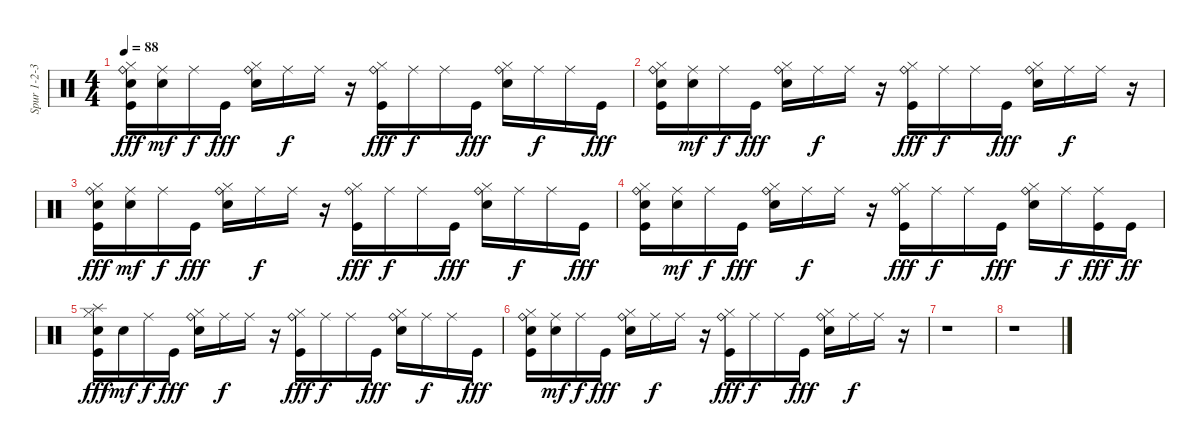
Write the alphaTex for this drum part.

\track ("Spur 1-2-3-4" "Spur 1-2-3") {instrument percussion}
\staff {score}
\articulation defaults
\ts (4 4)
\tempo 88
\clef neutral
\ks c
("Hi-Hat (closed)" "Snare (hit) 2" "Kick (hit)" "Ride (bell)").16{dy fff} ("Snare (hit) 2" "Ride (middle)").16{dy mf} "Ride (middle)".16{dy f} "Kick (hit)".16{dy fff} ("Hi-Hat (closed)" "Snare (hit) 2" "Ride (bell)").16 "Ride (middle)".16{dy f} "Ride (middle)".16 r.16 ("Hi-Hat (closed)" "Kick (hit)" "Ride (bell)").16{dy fff} "Ride (middle)".16{dy f} "Ride (middle)".16 "Kick (hit)".16{dy fff} ("Hi-Hat (closed)" "Snare (hit) 2" "Ride (bell)").16 "Ride (middle)".16{dy f} "Ride (middle)".16 "Kick (hit)".16{dy fff} |
("Hi-Hat (closed)" "Snare (hit) 2" "Kick (hit)" "Ride (bell)").16 ("Snare (hit) 2" "Ride (middle)").16{dy mf} "Ride (middle)".16{dy f} "Kick (hit)".16{dy fff} ("Hi-Hat (closed)" "Snare (hit) 2" "Ride (bell)").16 "Ride (middle)".16{dy f} "Ride (middle)".16 r.16 ("Hi-Hat (closed)" "Kick (hit)" "Ride (bell)").16{dy fff} "Ride (middle)".16{dy f} "Ride (middle)".16 "Kick (hit)".16{dy fff} ("Hi-Hat (closed)" "Snare (hit) 2" "Ride (bell)").16 "Ride (middle)".16{dy f} "Ride (middle)".16 r.16 |
("Hi-Hat (closed)" "Snare (hit) 2" "Kick (hit)" "Ride (bell)").16{dy fff} ("Snare (hit) 2" "Ride (middle)").16{dy mf} "Ride (middle)".16{dy f} "Kick (hit)".16{dy fff} ("Hi-Hat (closed)" "Snare (hit) 2" "Ride (bell)").16 "Ride (middle)".16{dy f} "Ride (middle)".16 r.16 ("Hi-Hat (closed)" "Kick (hit)" "Ride (bell)").16{dy fff} "Ride (middle)".16{dy f} "Ride (middle)".16 "Kick (hit)".16{dy fff} ("Hi-Hat (closed)" "Snare (hit) 2" "Ride (bell)").16 "Ride (middle)".16{dy f} "Ride (middle)".16 "Kick (hit)".16{dy fff} |
("Hi-Hat (closed)" "Snare (hit) 2" "Kick (hit)" "Ride (bell)").16 ("Snare (hit) 2" "Ride (middle)").16{dy mf} "Ride (middle)".16{dy f} "Kick (hit)".16{dy fff} ("Hi-Hat (closed)" "Snare (hit) 2" "Ride (bell)").16 "Ride (middle)".16{dy f} "Ride (middle)".16 r.16 ("Hi-Hat (closed)" "Kick (hit)" "Ride (bell)").16{dy fff} "Ride (middle)".16{dy f} "Ride (middle)".16 "Kick (hit)".16{dy fff} ("Hi-Hat (closed)" "Snare (hit) 2" "Ride (bell)").16 "Ride (middle)".16{dy f} ("Kick (hit)" "Ride (middle)").16{dy fff} "Kick (hit)".16{dy ff} |
("Hi-Hat (closed)" "Snare (hit) 2" "Kick (hit)" "Splash (hit)").16{dy fff} "Snare (hit) 2".16{dy mf} "Ride (middle)".16{dy f} "Kick (hit)".16{dy fff} ("Hi-Hat (closed)" "Snare (hit) 2" "Ride (bell)").16 "Ride (middle)".16{dy f} "Ride (middle)".16 r.16 ("Hi-Hat (closed)" "Kick (hit)" "Ride (bell)").16{dy fff} "Ride (middle)".16{dy f} "Ride (middle)".16 "Kick (hit)".16{dy fff} ("Hi-Hat (closed)" "Snare (hit) 2" "Ride (bell)").16 "Ride (middle)".16{dy f} "Ride (middle)".16 "Kick (hit)".16{dy fff} |
("Hi-Hat (closed)" "Snare (hit) 2" "Kick (hit)" "Ride (bell)").16 ("Snare (hit) 2" "Ride (middle)").16{dy mf} "Ride (middle)".16{dy f} "Kick (hit)".16{dy fff} ("Hi-Hat (closed)" "Snare (hit) 2" "Ride (bell)").16 "Ride (middle)".16{dy f} "Ride (middle)".16 r.16 ("Hi-Hat (closed)" "Kick (hit)" "Ride (bell)").16{dy fff} "Ride (middle)".16{dy f} "Ride (middle)".16 "Kick (hit)".16{dy fff} ("Hi-Hat (closed)" "Snare (hit) 2" "Ride (bell)").16 "Ride (middle)".16{dy f} "Ride (middle)".16 r.16 |
r.1 |
r.1
